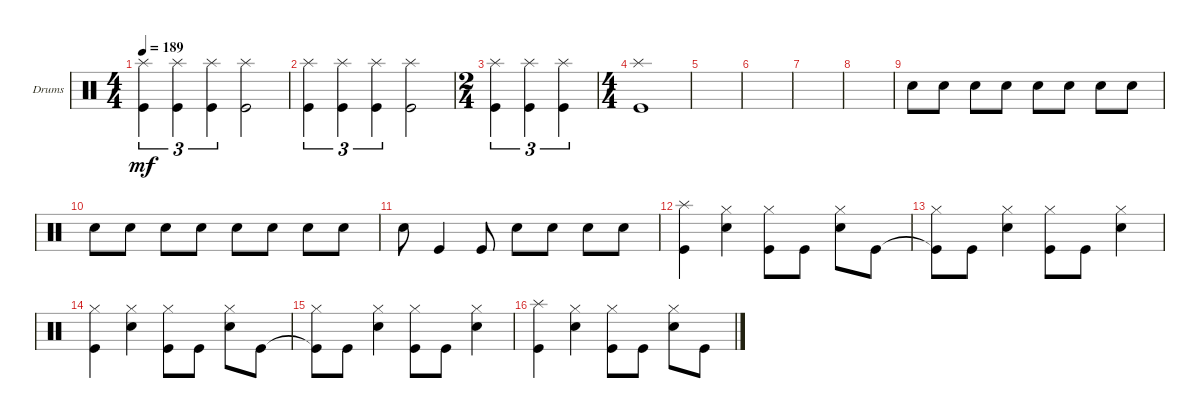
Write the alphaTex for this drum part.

\defaultSystemsLayout 4
\bracketExtendMode groupsimilarinstruments
\firstSystemTrackNameOrientation horizontal
\otherSystemsTrackNameOrientation horizontal
\track ("Drumkit" "Drums") {instrument percussion}
\staff {score}
\articulation defaults
\ts (4 4)
\tempo 189
\clef neutral
\ks c
("Kick (hit)" "Splash (hit)").4{tu (3 2) dy mf} ("Kick (hit)" "Splash (hit)").4{tu (3 2)} ("Kick (hit)" "Splash (hit)").4{tu (3 2)} ("Kick (hit)" "Splash (hit)").2 |
("Kick (hit)" "Splash (hit)").4{tu (3 2)} ("Kick (hit)" "Splash (hit)").4{tu (3 2)} ("Kick (hit)" "Splash (hit)").4{tu (3 2)} ("Kick (hit)" "Splash (hit)").2 |
\ts (2 4)
("Kick (hit)" "Splash (hit)").4{tu (3 2)} ("Kick (hit)" "Splash (hit)").4{tu (3 2)} ("Kick (hit)" "Splash (hit)").4{tu (3 2)} |
\ts (4 4)
("Kick (hit)" "Splash (hit)").1 |
|
|
|
|
"Snare (hit) 2".8 "Snare (hit) 2".8 "Snare (hit) 2".8 "Snare (hit) 2".8 "Snare (hit) 2".8 "Snare (hit) 2".8 "Snare (hit) 2".8 "Snare (hit) 2".8 |
"Snare (hit) 2".8 "Snare (hit) 2".8 "Snare (hit) 2".8 "Snare (hit) 2".8 "Snare (hit) 2".8 "Snare (hit) 2".8 "Snare (hit) 2".8 "Snare (hit) 2".8 |
"Snare (hit) 2".8 "Kick (hit)".4 "Kick (hit)".8 "Snare (hit) 2".8 "Snare (hit) 2".8 "Snare (hit) 2".8 "Snare (hit) 2".8 |
("Kick (hit)" "Splash (hit)").4 ("Snare (hit) 2" "Hi-Hat (closed)").4 ("Kick (hit)" "Hi-Hat (closed)").8 "Kick (hit)".8 ("Snare (hit) 2" "Hi-Hat (closed)").8 "Kick (hit)".8 |
("Kick (hit)"{t} "Hi-Hat (closed)").8 "Kick (hit)".8 ("Snare (hit) 2" "Hi-Hat (closed)").4 ("Kick (hit)" "Hi-Hat (closed)").8 "Kick (hit)".8 ("Snare (hit) 2" "Hi-Hat (closed)").4 |
("Kick (hit)" "Hi-Hat (closed)").4 ("Snare (hit) 2" "Hi-Hat (closed)").4 ("Kick (hit)" "Hi-Hat (closed)").8 "Kick (hit)".8 ("Snare (hit) 2" "Hi-Hat (closed)").8 "Kick (hit)".8 |
("Kick (hit)"{t} "Hi-Hat (closed)").8 "Kick (hit)".8 ("Snare (hit) 2" "Hi-Hat (closed)").4 ("Kick (hit)" "Hi-Hat (closed)").8 "Kick (hit)".8 ("Snare (hit) 2" "Hi-Hat (closed)").4 |
("Kick (hit)" "Splash (hit)").4 ("Snare (hit) 2" "Hi-Hat (closed)").4 ("Kick (hit)" "Hi-Hat (closed)").8 "Kick (hit)".8 ("Snare (hit) 2" "Hi-Hat (closed)").8 "Kick (hit)".8
